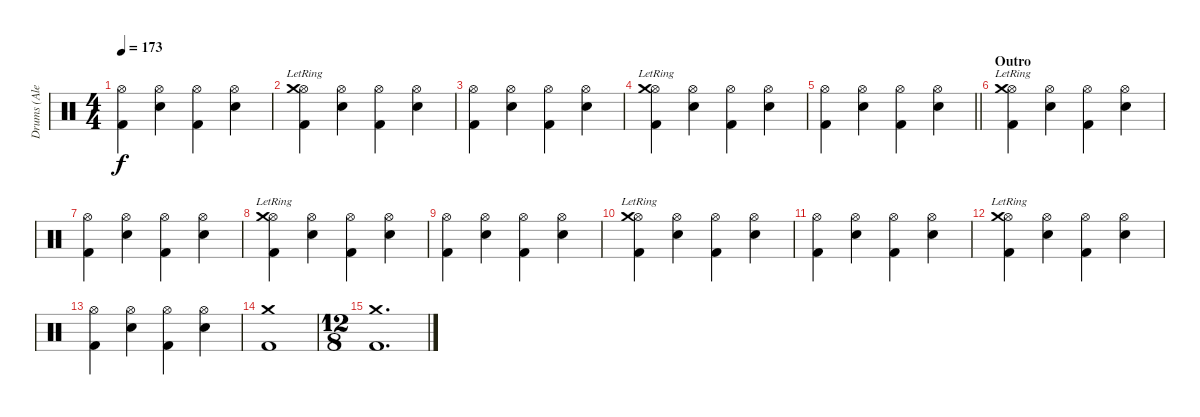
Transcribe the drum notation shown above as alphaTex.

\track ("Drums (Alex Van Halen)" "Drums (Ale") {instrument percussion}
\staff {score}
\articulation defaults
\ts (4 4)
\tempo 173
\clef neutral
\ks c
("Kick (hit) 2" "Hi-Hat (open)").4{dy f} ("Snare (hit) 2" "Hi-Hat (open)").4 ("Kick (hit) 2" "Hi-Hat (open)").4 ("Snare (hit) 2" "Hi-Hat (open)").4 |
("Kick (hit) 2" "Hi-Hat (open)" "Crash medium (hit)"{lr}).4 ("Snare (hit) 2" "Hi-Hat (open)").4 ("Kick (hit) 2" "Hi-Hat (open)").4 ("Snare (hit) 2" "Hi-Hat (open)").4 |
("Kick (hit) 2" "Hi-Hat (open)").4 ("Snare (hit) 2" "Hi-Hat (open)").4 ("Kick (hit) 2" "Hi-Hat (open)").4 ("Snare (hit) 2" "Hi-Hat (open)").4 |
("Kick (hit) 2" "Hi-Hat (open)" "Crash medium (hit)"{lr}).4 ("Snare (hit) 2" "Hi-Hat (open)").4 ("Kick (hit) 2" "Hi-Hat (open)").4 ("Snare (hit) 2" "Hi-Hat (open)").4 |
\barLineRight lightlight
("Kick (hit) 2" "Hi-Hat (open)").4 ("Snare (hit) 2" "Hi-Hat (open)").4 ("Kick (hit) 2" "Hi-Hat (open)").4 ("Snare (hit) 2" "Hi-Hat (open)").4 |
\section ("" "Outro")
("Kick (hit) 2" "Hi-Hat (open)" "Crash medium (hit)"{lr}).4 ("Snare (hit) 2" "Hi-Hat (open)").4 ("Kick (hit) 2" "Hi-Hat (open)").4 ("Snare (hit) 2" "Hi-Hat (open)").4 |
("Kick (hit) 2" "Hi-Hat (open)").4 ("Snare (hit) 2" "Hi-Hat (open)").4 ("Kick (hit) 2" "Hi-Hat (open)").4 ("Snare (hit) 2" "Hi-Hat (open)").4 |
("Kick (hit) 2" "Hi-Hat (open)" "Crash medium (hit)"{lr}).4 ("Snare (hit) 2" "Hi-Hat (open)").4 ("Kick (hit) 2" "Hi-Hat (open)").4 ("Snare (hit) 2" "Hi-Hat (open)").4 |
("Kick (hit) 2" "Hi-Hat (open)").4 ("Snare (hit) 2" "Hi-Hat (open)").4 ("Kick (hit) 2" "Hi-Hat (open)").4 ("Snare (hit) 2" "Hi-Hat (open)").4 |
("Kick (hit) 2" "Hi-Hat (open)" "Crash medium (hit)"{lr}).4 ("Snare (hit) 2" "Hi-Hat (open)").4 ("Kick (hit) 2" "Hi-Hat (open)").4 ("Snare (hit) 2" "Hi-Hat (open)").4 |
("Kick (hit) 2" "Hi-Hat (open)").4 ("Snare (hit) 2" "Hi-Hat (open)").4 ("Kick (hit) 2" "Hi-Hat (open)").4 ("Snare (hit) 2" "Hi-Hat (open)").4 |
("Kick (hit) 2" "Hi-Hat (open)" "Crash medium (hit)"{lr}).4 ("Snare (hit) 2" "Hi-Hat (open)").4 ("Kick (hit) 2" "Hi-Hat (open)").4 ("Snare (hit) 2" "Hi-Hat (open)").4 |
("Kick (hit) 2" "Hi-Hat (open)").4 ("Snare (hit) 2" "Hi-Hat (open)").4 ("Kick (hit) 2" "Hi-Hat (open)").4 ("Snare (hit) 2" "Hi-Hat (open)").4 |
("Kick (hit) 2" "Crash medium (hit)").1 |
\ts (12 8)
("Kick (hit) 2" "Crash medium (hit)").1{d}
